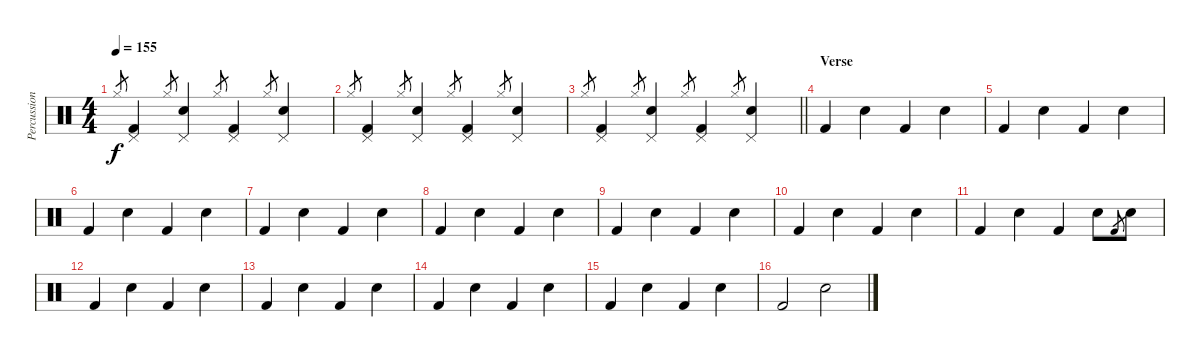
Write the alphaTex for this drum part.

\track ("Percussion" "Percussion") {instrument percussion}
\staff {score}
\articulation defaults
\ts (4 4)
\tempo 155
\clef neutral
\ks c "Hi-Hat (closed)".8{gr dy f}
("Pedal Hi-Hat (hit)" "Kick (hit) 2").4 "Hi-Hat (closed)".8{gr} ("Pedal Hi-Hat (hit)" "Snare (hit) 2").4 "Hi-Hat (closed)".8{gr} ("Pedal Hi-Hat (hit)" "Kick (hit) 2").4 "Hi-Hat (closed)".8{gr} ("Pedal Hi-Hat (hit)" "Snare (hit) 2").4 |
"Hi-Hat (closed)".8{gr} ("Pedal Hi-Hat (hit)" "Kick (hit) 2").4 "Hi-Hat (closed)".8{gr} ("Pedal Hi-Hat (hit)" "Snare (hit) 2").4 "Hi-Hat (closed)".8{gr} ("Pedal Hi-Hat (hit)" "Kick (hit) 2").4 "Hi-Hat (closed)".8{gr} ("Pedal Hi-Hat (hit)" "Snare (hit) 2").4 |
\barLineRight lightlight "Hi-Hat (closed)".8{gr}
("Pedal Hi-Hat (hit)" "Kick (hit) 2").4 "Hi-Hat (closed)".8{gr} ("Pedal Hi-Hat (hit)" "Snare (hit) 2").4 "Hi-Hat (closed)".8{gr} ("Pedal Hi-Hat (hit)" "Kick (hit) 2").4 "Hi-Hat (closed)".8{gr} ("Pedal Hi-Hat (hit)" "Snare (hit) 2").4 |
\section ("" "Verse")
"Kick (hit) 2".4 "Snare (hit) 2".4 "Kick (hit) 2".4 "Snare (hit) 2".4 |
"Kick (hit) 2".4 "Snare (hit) 2".4 "Kick (hit) 2".4 "Snare (hit) 2".4 |
"Kick (hit) 2".4 "Snare (hit) 2".4 "Kick (hit) 2".4 "Snare (hit) 2".4 |
"Kick (hit) 2".4 "Snare (hit) 2".4 "Kick (hit) 2".4 "Snare (hit) 2".4 |
"Kick (hit) 2".4 "Snare (hit) 2".4 "Kick (hit) 2".4 "Snare (hit) 2".4 |
"Kick (hit) 2".4 "Snare (hit) 2".4 "Kick (hit) 2".4 "Snare (hit) 2".4 |
"Kick (hit) 2".4 "Snare (hit) 2".4 "Kick (hit) 2".4 "Snare (hit) 2".4 |
"Kick (hit) 2".4 "Snare (hit) 2".4 "Kick (hit) 2".4 "Snare (hit) 2".8 "Kick (hit) 2".8{gr} "Snare (hit) 2".8 |
"Kick (hit) 2".4 "Snare (hit) 2".4 "Kick (hit) 2".4 "Snare (hit) 2".4 |
"Kick (hit) 2".4 "Snare (hit) 2".4 "Kick (hit) 2".4 "Snare (hit) 2".4 |
"Kick (hit) 2".4 "Snare (hit) 2".4 "Kick (hit) 2".4 "Snare (hit) 2".4 |
"Kick (hit) 2".4 "Snare (hit) 2".4 "Kick (hit) 2".4 "Snare (hit) 2".4 |
"Kick (hit) 2".2 "Snare (hit) 2".2
